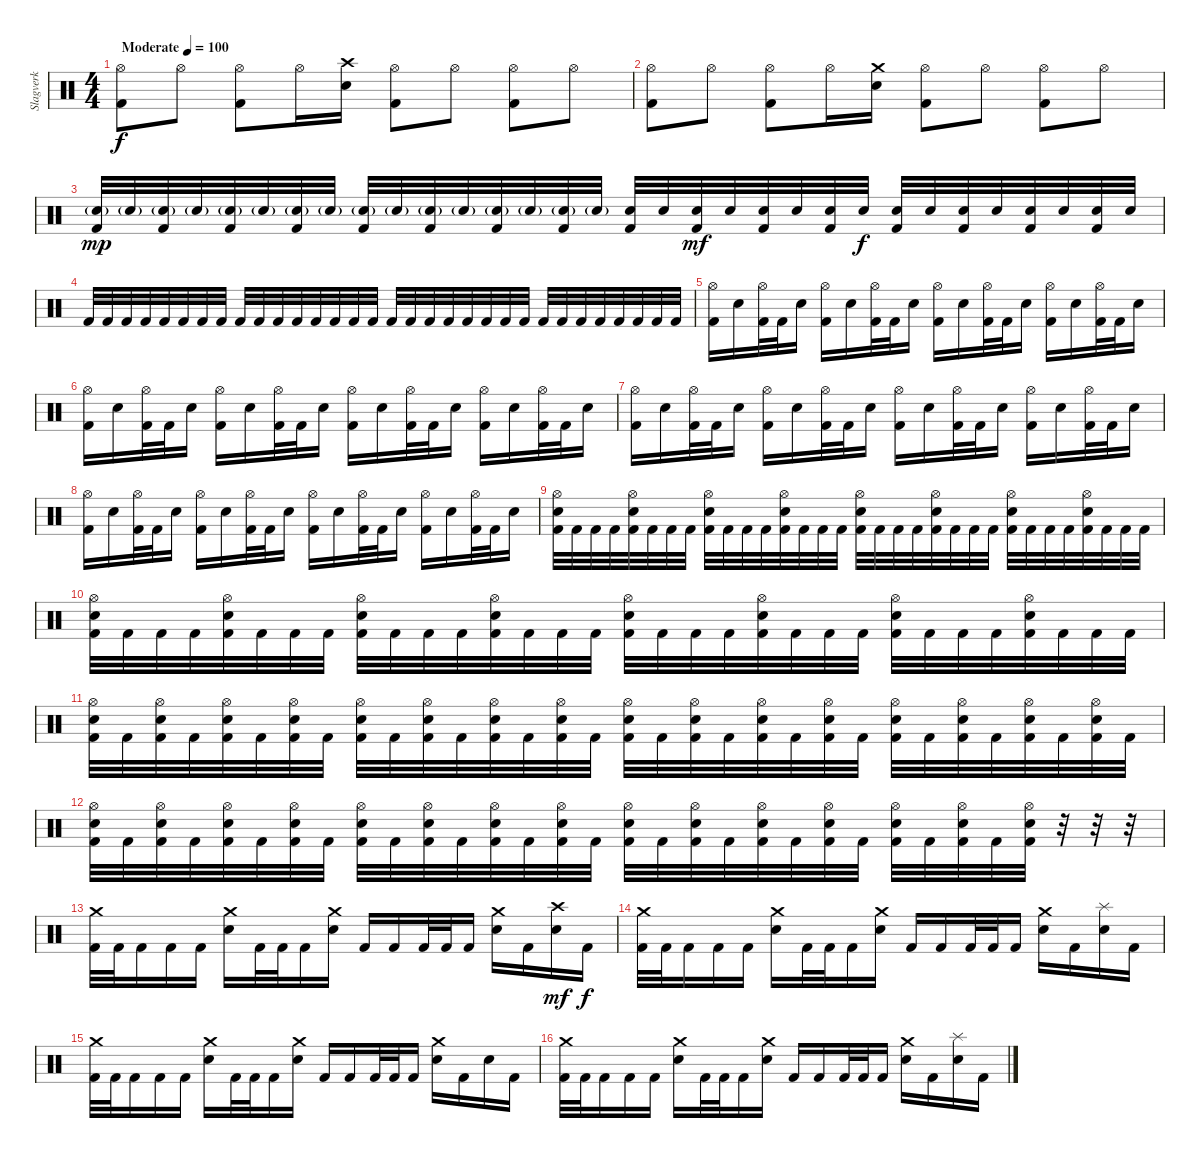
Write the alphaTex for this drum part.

\track ("Slagverk" "Slagverk") {instrument percussion}
\staff {score}
\articulation defaults
\ts (4 4)
\tempo (100 "Moderate")
\clef neutral
\ks c
("Hi-Hat (open)" "Kick (hit) 2").8{dy f} "Hi-Hat (open)".8 ("Hi-Hat (open)" "Kick (hit) 2").8 "Hi-Hat (open)".16 ("Crash high (hit)" "Snare (hit) 2").16 ("Hi-Hat (open)" "Kick (hit) 2").8 "Hi-Hat (open)".8 ("Hi-Hat (open)" "Kick (hit) 2").8 "Hi-Hat (open)".8 |
("Hi-Hat (open)" "Kick (hit) 2").8 "Hi-Hat (open)".8 ("Hi-Hat (open)" "Kick (hit) 2").8 "Hi-Hat (open)".16 ("Crash medium (hit)" "Snare (hit) 2").16 ("Hi-Hat (open)" "Kick (hit) 2").8 "Hi-Hat (open)".8 ("Hi-Hat (open)" "Kick (hit) 2").8 "Hi-Hat (open)".8 |
("Snare (hit) 2"{g} "Kick (hit) 2").32{dy mp} "Snare (hit) 2"{g}.32 ("Snare (hit) 2"{g} "Kick (hit) 2").32 "Snare (hit) 2"{g}.32 ("Snare (hit) 2"{g} "Kick (hit) 2").32 "Snare (hit) 2"{g}.32 ("Snare (hit) 2"{g} "Kick (hit) 2").32 "Snare (hit) 2"{g}.32 ("Snare (hit) 2"{g} "Kick (hit) 2").32 "Snare (hit) 2"{g}.32 ("Snare (hit) 2"{g} "Kick (hit) 2").32 "Snare (hit) 2"{g}.32 ("Snare (hit) 2"{g} "Kick (hit) 2").32 "Snare (hit) 2"{g}.32 ("Snare (hit) 2"{g} "Kick (hit) 2").32 "Snare (hit) 2"{g}.32 ("Snare (hit) 2" "Kick (hit) 2").32 "Snare (hit) 2".32 ("Snare (hit) 2" "Kick (hit) 2").32{dy mf} "Snare (hit) 2".32 ("Snare (hit) 2" "Kick (hit) 2").32 "Snare (hit) 2".32 ("Snare (hit) 2" "Kick (hit) 2").32 "Snare (hit) 2".32{dy f} ("Snare (hit) 2" "Kick (hit) 2").32 "Snare (hit) 2".32 ("Snare (hit) 2" "Kick (hit) 2").32 "Snare (hit) 2".32 ("Snare (hit) 2" "Kick (hit) 2").32 "Snare (hit) 2".32 ("Snare (hit) 2" "Kick (hit) 2").32 "Snare (hit) 2".32 |
"Kick (hit) 2".32 "Kick (hit) 2".32 "Kick (hit) 2".32 "Kick (hit) 2".32 "Kick (hit) 2".32 "Kick (hit) 2".32 "Kick (hit) 2".32 "Kick (hit) 2".32 "Kick (hit) 2".32 "Kick (hit) 2".32 "Kick (hit) 2".32 "Kick (hit) 2".32 "Kick (hit) 2".32 "Kick (hit) 2".32 "Kick (hit) 2".32 "Kick (hit) 2".32 "Kick (hit) 2".32 "Kick (hit) 2".32 "Kick (hit) 2".32 "Kick (hit) 2".32 "Kick (hit) 2".32 "Kick (hit) 2".32 "Kick (hit) 2".32 "Kick (hit) 2".32 "Kick (hit) 2".32 "Kick (hit) 2".32 "Kick (hit) 2".32 "Kick (hit) 2".32 "Kick (hit) 2".32 "Kick (hit) 2".32 "Kick (hit) 2".32 "Kick (hit) 2".32 |
("Hi-Hat (open)" "Kick (hit) 2").16 "Snare (hit) 2".16 ("Hi-Hat (open)" "Kick (hit) 2").32 "Kick (hit) 2".32 "Snare (hit) 2".16 ("Hi-Hat (open)" "Kick (hit) 2").16 "Snare (hit) 2".16 ("Hi-Hat (open)" "Kick (hit) 2").32 "Kick (hit) 2".32 "Snare (hit) 2".16 ("Hi-Hat (open)" "Kick (hit) 2").16 "Snare (hit) 2".16 ("Hi-Hat (open)" "Kick (hit) 2").32 "Kick (hit) 2".32 "Snare (hit) 2".16 ("Hi-Hat (open)" "Kick (hit) 2").16 "Snare (hit) 2".16 ("Hi-Hat (open)" "Kick (hit) 2").32 "Kick (hit) 2".32 "Snare (hit) 2".16 |
("Hi-Hat (open)" "Kick (hit) 2").16 "Snare (hit) 2".16 ("Hi-Hat (open)" "Kick (hit) 2").32 "Kick (hit) 2".32 "Snare (hit) 2".16 ("Hi-Hat (open)" "Kick (hit) 2").16 "Snare (hit) 2".16 ("Hi-Hat (open)" "Kick (hit) 2").32 "Kick (hit) 2".32 "Snare (hit) 2".16 ("Hi-Hat (open)" "Kick (hit) 2").16 "Snare (hit) 2".16 ("Hi-Hat (open)" "Kick (hit) 2").32 "Kick (hit) 2".32 "Snare (hit) 2".16 ("Hi-Hat (open)" "Kick (hit) 2").16 "Snare (hit) 2".16 ("Hi-Hat (open)" "Kick (hit) 2").32 "Kick (hit) 2".32 "Snare (hit) 2".16 |
("Hi-Hat (open)" "Kick (hit) 2").16 "Snare (hit) 2".16 ("Hi-Hat (open)" "Kick (hit) 2").32 "Kick (hit) 2".32 "Snare (hit) 2".16 ("Hi-Hat (open)" "Kick (hit) 2").16 "Snare (hit) 2".16 ("Hi-Hat (open)" "Kick (hit) 2").32 "Kick (hit) 2".32 "Snare (hit) 2".16 ("Hi-Hat (open)" "Kick (hit) 2").16 "Snare (hit) 2".16 ("Hi-Hat (open)" "Kick (hit) 2").32 "Kick (hit) 2".32 "Snare (hit) 2".16 ("Hi-Hat (open)" "Kick (hit) 2").16 "Snare (hit) 2".16 ("Hi-Hat (open)" "Kick (hit) 2").32 "Kick (hit) 2".32 "Snare (hit) 2".16 |
("Hi-Hat (open)" "Kick (hit) 2").16 "Snare (hit) 2".16 ("Hi-Hat (open)" "Kick (hit) 2").32 "Kick (hit) 2".32 "Snare (hit) 2".16 ("Hi-Hat (open)" "Kick (hit) 2").16 "Snare (hit) 2".16 ("Hi-Hat (open)" "Kick (hit) 2").32 "Kick (hit) 2".32 "Snare (hit) 2".16 ("Hi-Hat (open)" "Kick (hit) 2").16 "Snare (hit) 2".16 ("Hi-Hat (open)" "Kick (hit) 2").32 "Kick (hit) 2".32 "Snare (hit) 2".16 ("Hi-Hat (open)" "Kick (hit) 2").16 "Snare (hit) 2".16 ("Hi-Hat (open)" "Kick (hit) 2").32 "Kick (hit) 2".32 "Snare (hit) 2".16 |
("Hi-Hat (open)" "Snare (hit) 2" "Kick (hit) 2").32 "Kick (hit) 2".32 "Kick (hit) 2".32 "Kick (hit) 2".32 ("Hi-Hat (open)" "Snare (hit) 2" "Kick (hit) 2").32 "Kick (hit) 2".32 "Kick (hit) 2".32 "Kick (hit) 2".32 ("Hi-Hat (open)" "Snare (hit) 2" "Kick (hit) 2").32 "Kick (hit) 2".32 "Kick (hit) 2".32 "Kick (hit) 2".32 ("Hi-Hat (open)" "Snare (hit) 2" "Kick (hit) 2").32 "Kick (hit) 2".32 "Kick (hit) 2".32 "Kick (hit) 2".32 ("Hi-Hat (open)" "Snare (hit) 2" "Kick (hit) 2").32 "Kick (hit) 2".32 "Kick (hit) 2".32 "Kick (hit) 2".32 ("Hi-Hat (open)" "Snare (hit) 2" "Kick (hit) 2").32 "Kick (hit) 2".32 "Kick (hit) 2".32 "Kick (hit) 2".32 ("Hi-Hat (open)" "Snare (hit) 2" "Kick (hit) 2").32 "Kick (hit) 2".32 "Kick (hit) 2".32 "Kick (hit) 2".32 ("Hi-Hat (open)" "Snare (hit) 2" "Kick (hit) 2").32 "Kick (hit) 2".32 "Kick (hit) 2".32 "Kick (hit) 2".32 |
("Hi-Hat (open)" "Snare (hit) 2" "Kick (hit) 2").32 "Kick (hit) 2".32 "Kick (hit) 2".32 "Kick (hit) 2".32 ("Hi-Hat (open)" "Snare (hit) 2" "Kick (hit) 2").32 "Kick (hit) 2".32 "Kick (hit) 2".32 "Kick (hit) 2".32 ("Hi-Hat (open)" "Snare (hit) 2" "Kick (hit) 2").32 "Kick (hit) 2".32 "Kick (hit) 2".32 "Kick (hit) 2".32 ("Hi-Hat (open)" "Snare (hit) 2" "Kick (hit) 2").32 "Kick (hit) 2".32 "Kick (hit) 2".32 "Kick (hit) 2".32 ("Hi-Hat (open)" "Snare (hit) 2" "Kick (hit) 2").32 "Kick (hit) 2".32 "Kick (hit) 2".32 "Kick (hit) 2".32 ("Hi-Hat (open)" "Snare (hit) 2" "Kick (hit) 2").32 "Kick (hit) 2".32 "Kick (hit) 2".32 "Kick (hit) 2".32 ("Hi-Hat (open)" "Snare (hit) 2" "Kick (hit) 2").32 "Kick (hit) 2".32 "Kick (hit) 2".32 "Kick (hit) 2".32 ("Hi-Hat (open)" "Snare (hit) 2" "Kick (hit) 2").32 "Kick (hit) 2".32 "Kick (hit) 2".32 "Kick (hit) 2".32 |
("Hi-Hat (open)" "Snare (hit) 2" "Kick (hit) 2").32 "Kick (hit) 2".32 ("Hi-Hat (open)" "Snare (hit) 2" "Kick (hit) 2").32 "Kick (hit) 2".32 ("Hi-Hat (open)" "Snare (hit) 2" "Kick (hit) 2").32 "Kick (hit) 2".32 ("Hi-Hat (open)" "Snare (hit) 2" "Kick (hit) 2").32 "Kick (hit) 2".32 ("Hi-Hat (open)" "Snare (hit) 2" "Kick (hit) 2").32 "Kick (hit) 2".32 ("Hi-Hat (open)" "Snare (hit) 2" "Kick (hit) 2").32 "Kick (hit) 2".32 ("Hi-Hat (open)" "Snare (hit) 2" "Kick (hit) 2").32 "Kick (hit) 2".32 ("Hi-Hat (open)" "Snare (hit) 2" "Kick (hit) 2").32 "Kick (hit) 2".32 ("Hi-Hat (open)" "Snare (hit) 2" "Kick (hit) 2").32 "Kick (hit) 2".32 ("Hi-Hat (open)" "Snare (hit) 2" "Kick (hit) 2").32 "Kick (hit) 2".32 ("Hi-Hat (open)" "Snare (hit) 2" "Kick (hit) 2").32 "Kick (hit) 2".32 ("Hi-Hat (open)" "Snare (hit) 2" "Kick (hit) 2").32 "Kick (hit) 2".32 ("Hi-Hat (open)" "Snare (hit) 2" "Kick (hit) 2").32 "Kick (hit) 2".32 ("Hi-Hat (open)" "Snare (hit) 2" "Kick (hit) 2").32 "Kick (hit) 2".32 ("Hi-Hat (open)" "Snare (hit) 2" "Kick (hit) 2").32 "Kick (hit) 2".32 ("Hi-Hat (open)" "Snare (hit) 2" "Kick (hit) 2").32 "Kick (hit) 2".32 |
("Hi-Hat (open)" "Snare (hit) 2" "Kick (hit) 2").32 "Kick (hit) 2".32 ("Hi-Hat (open)" "Snare (hit) 2" "Kick (hit) 2").32 "Kick (hit) 2".32 ("Hi-Hat (open)" "Snare (hit) 2" "Kick (hit) 2").32 "Kick (hit) 2".32 ("Hi-Hat (open)" "Snare (hit) 2" "Kick (hit) 2").32 "Kick (hit) 2".32 ("Hi-Hat (open)" "Snare (hit) 2" "Kick (hit) 2").32 "Kick (hit) 2".32 ("Hi-Hat (open)" "Snare (hit) 2" "Kick (hit) 2").32 "Kick (hit) 2".32 ("Hi-Hat (open)" "Snare (hit) 2" "Kick (hit) 2").32 "Kick (hit) 2".32 ("Hi-Hat (open)" "Snare (hit) 2" "Kick (hit) 2").32 "Kick (hit) 2".32 ("Hi-Hat (open)" "Snare (hit) 2" "Kick (hit) 2").32 "Kick (hit) 2".32 ("Hi-Hat (open)" "Snare (hit) 2" "Kick (hit) 2").32 "Kick (hit) 2".32 ("Hi-Hat (open)" "Snare (hit) 2" "Kick (hit) 2").32 "Kick (hit) 2".32 ("Hi-Hat (open)" "Snare (hit) 2" "Kick (hit) 2").32 "Kick (hit) 2".32 ("Hi-Hat (open)" "Snare (hit) 2" "Kick (hit) 2").32 "Kick (hit) 2".32 ("Hi-Hat (open)" "Snare (hit) 2" "Kick (hit) 2").32 "Kick (hit) 2".32 ("Hi-Hat (open)" "Snare (hit) 2" "Kick (hit) 2").32 r.32 r.32 r.32 |
("Crash medium (hit)" "Kick (hit) 2").32 "Kick (hit) 2".32 "Kick (hit) 2".16 "Kick (hit) 2".16 "Kick (hit) 2".16 ("Crash medium (hit)" "Snare (hit) 2").16 "Kick (hit) 2".32 "Kick (hit) 2".32 "Kick (hit) 2".16 ("Crash medium (hit)" "Snare (hit) 2").16 "Kick (hit) 2".16 "Kick (hit) 2".16 "Kick (hit) 2".32 "Kick (hit) 2".32 "Kick (hit) 2".16 ("Crash medium (hit)" "Snare (hit) 2").16 "Kick (hit) 2".16 ("Crash high (hit)" "Snare (hit) 2").16{dy mf} "Kick (hit) 2".16{dy f} |
("Crash medium (hit)" "Kick (hit) 2").32 "Kick (hit) 2".32 "Kick (hit) 2".16 "Kick (hit) 2".16 "Kick (hit) 2".16 ("Crash medium (hit)" "Snare (hit) 2").16 "Kick (hit) 2".32 "Kick (hit) 2".32 "Kick (hit) 2".16 ("Crash medium (hit)" "Snare (hit) 2").16 "Kick (hit) 2".16 "Kick (hit) 2".16 "Kick (hit) 2".32 "Kick (hit) 2".32 "Kick (hit) 2".16 ("Crash medium (hit)" "Snare (hit) 2").16 "Kick (hit) 2".16 ("Splash (hit)" "Snare (hit) 2").16 "Kick (hit) 2".16 |
("Crash medium (hit)" "Kick (hit) 2").32 "Kick (hit) 2".32 "Kick (hit) 2".16 "Kick (hit) 2".16 "Kick (hit) 2".16 ("Crash medium (hit)" "Snare (hit) 2").16 "Kick (hit) 2".32 "Kick (hit) 2".32 "Kick (hit) 2".16 ("Crash medium (hit)" "Snare (hit) 2").16 "Kick (hit) 2".16 "Kick (hit) 2".16 "Kick (hit) 2".32 "Kick (hit) 2".32 "Kick (hit) 2".16 ("Crash medium (hit)" "Snare (hit) 2").16 "Kick (hit) 2".16 "Snare (hit) 2".16 "Kick (hit) 2".16 |
("Crash medium (hit)" "Kick (hit) 2").32 "Kick (hit) 2".32 "Kick (hit) 2".16 "Kick (hit) 2".16 "Kick (hit) 2".16 ("Crash medium (hit)" "Snare (hit) 2").16 "Kick (hit) 2".32 "Kick (hit) 2".32 "Kick (hit) 2".16 ("Crash medium (hit)" "Snare (hit) 2").16 "Kick (hit) 2".16 "Kick (hit) 2".16 "Kick (hit) 2".32 "Kick (hit) 2".32 "Kick (hit) 2".16 ("Crash medium (hit)" "Snare (hit) 2").16 "Kick (hit) 2".16 ("Splash (hit)" "Snare (hit) 2").16 "Kick (hit) 2".16
